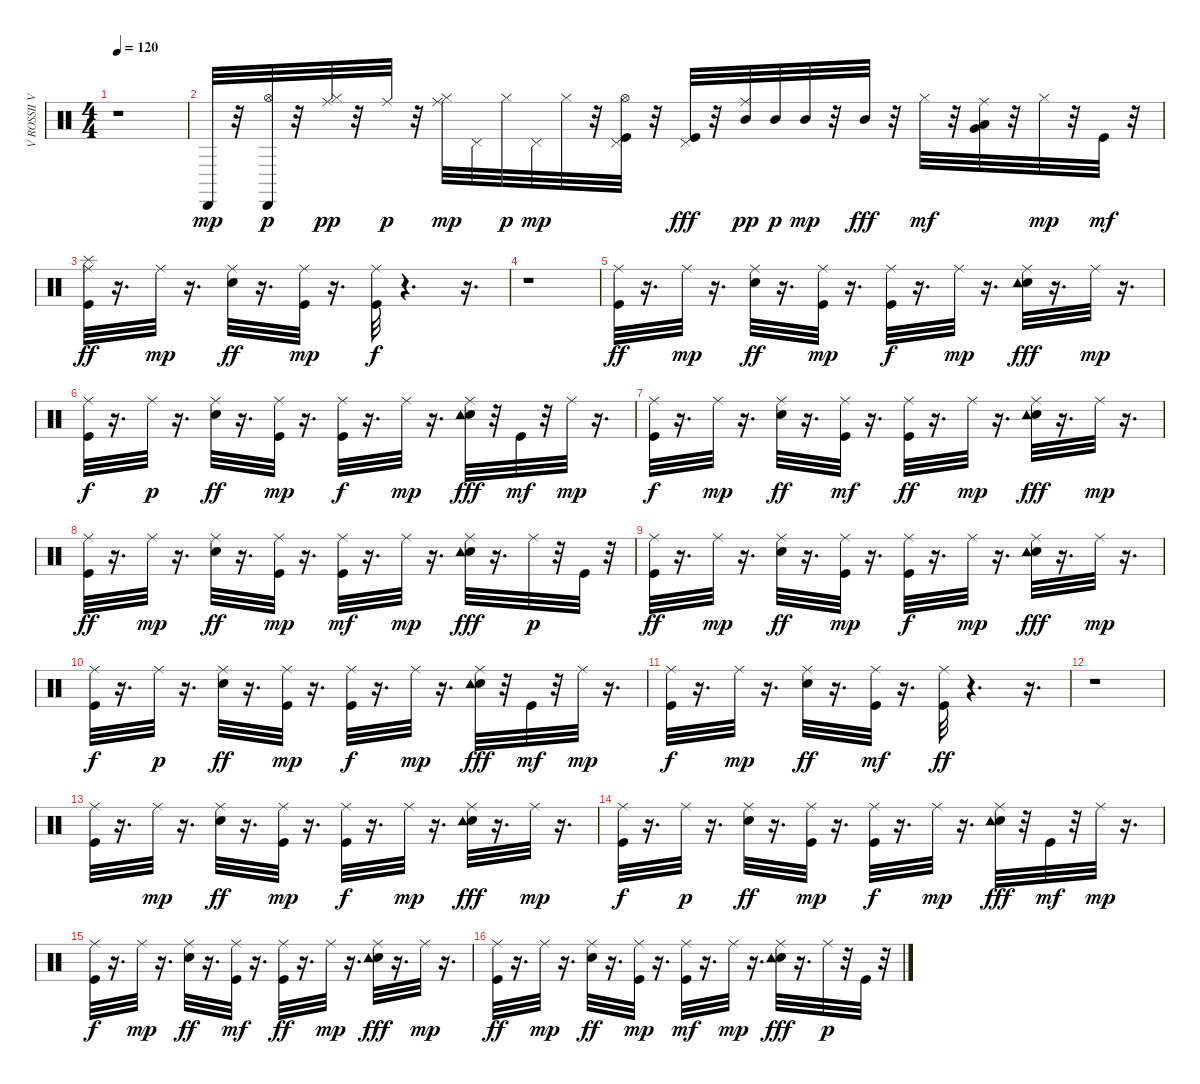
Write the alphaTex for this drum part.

\track ("V ROSSII VECHERA     " "V ROSSII V") {instrument percussion}
\staff {score}
\articulation defaults
\ts (4 4)
\tempo 120
\clef neutral
\ks c
r.1{dy mp} |
"Cabasa (hit)".32 r.32 ("Cabasa (hit)" "Hi-Hat (open)").32{dy p} r.32 ("Hi-Hat (closed)" "Ride (middle)").32{dy pp} r.32 "Ride (middle)".32{dy p} r.32 ("Hi-Hat (closed)" "Ride (middle)").32{dy mp} "Pedal Hi-Hat (hit)".32 "Hi-Hat (closed)".32{dy p} "Pedal Hi-Hat (hit)".32{dy mp} "Hi-Hat (closed)".32 r.32 ("Pedal Hi-Hat (hit)" "Kick (hit)" "Hi-Hat (open)").32 r.32 ("Kick (hit)" "Pedal Hi-Hat (hit)").32{dy fff} r.32 ("Ride (middle)" "Mid Tom (hit)").32{dy pp} "Mid Tom (hit)".32{dy p} "Mid Tom (hit)".32{dy mp} r.32 "Mid Tom (hit)".32{dy fff} r.32 "Hi-Hat (closed)".32{dy mf} r.32 ("Ride (middle)" "Low Tom (hit)" "Very Low Tom (hit)").32 r.32 "Hi-Hat (closed)".32{dy mp} r.32 "Kick (hit)".32{dy mf} r.32 |
("Splash (hit)" "Ride (middle)" "Kick (hit)").32{dy ff} r.16{d} "Ride (middle)".32{dy mp} r.16{d} ("Snare (hit) 2" "Ride (middle)").32{dy ff} r.16{d} ("Kick (hit)" "Ride (middle)").32{dy mp} r.16{d} ("Kick (hit)" "Ride (middle)").32{dy f} r.4{d} r.16{d} |
r.1 |
("Ride (middle)" "Kick (hit)").32{dy ff} r.16{d} "Ride (middle)".32{dy mp} r.16{d} ("Snare (hit) 2" "Ride (middle)").32{dy ff} r.16{d} ("Kick (hit)" "Ride (middle)").32{dy mp} r.16{d} ("Kick (hit)" "Ride (middle)").32{dy f} r.16{d} "Ride (middle)".32{dy mp} r.16{d} ("Snare (hit) 2" "Ride (middle)" "Tambourine (hit)").32{dy fff} r.16{d} "Ride (middle)".32{dy mp} r.16{d} |
("Ride (middle)" "Kick (hit)").32{dy f} r.16{d} "Ride (middle)".32{dy p} r.16{d} ("Snare (hit) 2" "Ride (middle)").32{dy ff} r.16{d} ("Ride (middle)" "Kick (hit)").32{dy mp} r.16{d} ("Ride (middle)" "Kick (hit)").32{dy f} r.16{d} "Ride (middle)".32{dy mp} r.16{d} ("Snare (hit) 2" "Ride (middle)" "Tambourine (hit)").32{dy fff} r.32 "Kick (hit)".32{dy mf} r.32 "Ride (middle)".32{dy mp} r.16{d} |
("Kick (hit)" "Ride (middle)").32{dy f} r.16{d} "Ride (middle)".32{dy mp} r.16{d} ("Snare (hit) 2" "Ride (middle)").32{dy ff} r.16{d} ("Ride (middle)" "Kick (hit)").32{dy mf} r.16{d} ("Ride (middle)" "Kick (hit)").32{dy ff} r.16{d} "Ride (middle)".32{dy mp} r.16{d} ("Snare (hit) 2" "Ride (middle)" "Tambourine (hit)").32{dy fff} r.16{d} "Ride (middle)".32{dy mp} r.16{d} |
("Kick (hit)" "Ride (middle)").32{dy ff} r.16{d} "Ride (middle)".32{dy mp} r.16{d} ("Snare (hit) 2" "Ride (middle)").32{dy ff} r.16{d} ("Kick (hit)" "Ride (middle)").32{dy mp} r.16{d} ("Kick (hit)" "Ride (middle)").32{dy mf} r.16{d} "Ride (middle)".32{dy mp} r.16{d} ("Snare (hit) 2" "Ride (middle)" "Tambourine (hit)").32{dy fff} r.16{d} "Ride (middle)".32{dy p} r.32 "Kick (hit)".32 r.32 |
("Ride (middle)" "Kick (hit)").32{dy ff} r.16{d} "Ride (middle)".32{dy mp} r.16{d} ("Snare (hit) 2" "Ride (middle)").32{dy ff} r.16{d} ("Kick (hit)" "Ride (middle)").32{dy mp} r.16{d} ("Kick (hit)" "Ride (middle)").32{dy f} r.16{d} "Ride (middle)".32{dy mp} r.16{d} ("Snare (hit) 2" "Ride (middle)" "Tambourine (hit)").32{dy fff} r.16{d} "Ride (middle)".32{dy mp} r.16{d} |
("Ride (middle)" "Kick (hit)").32{dy f} r.16{d} "Ride (middle)".32{dy p} r.16{d} ("Snare (hit) 2" "Ride (middle)").32{dy ff} r.16{d} ("Ride (middle)" "Kick (hit)").32{dy mp} r.16{d} ("Ride (middle)" "Kick (hit)").32{dy f} r.16{d} "Ride (middle)".32{dy mp} r.16{d} ("Snare (hit) 2" "Ride (middle)" "Tambourine (hit)").32{dy fff} r.32 "Kick (hit)".32{dy mf} r.32 "Ride (middle)".32{dy mp} r.16{d} |
("Kick (hit)" "Ride (middle)").32{dy f} r.16{d} "Ride (middle)".32{dy mp} r.16{d} ("Snare (hit) 2" "Ride (middle)").32{dy ff} r.16{d} ("Ride (middle)" "Kick (hit)").32{dy mf} r.16{d} ("Ride (middle)" "Kick (hit)").32{dy ff} r.4{d} r.16{d} |
r.1 |
("Ride (middle)" "Kick (hit)").32 r.16{d} "Ride (middle)".32{dy mp} r.16{d} ("Snare (hit) 2" "Ride (middle)").32{dy ff} r.16{d} ("Kick (hit)" "Ride (middle)").32{dy mp} r.16{d} ("Kick (hit)" "Ride (middle)").32{dy f} r.16{d} "Ride (middle)".32{dy mp} r.16{d} ("Snare (hit) 2" "Ride (middle)" "Tambourine (hit)").32{dy fff} r.16{d} "Ride (middle)".32{dy mp} r.16{d} |
("Ride (middle)" "Kick (hit)").32{dy f} r.16{d} "Ride (middle)".32{dy p} r.16{d} ("Snare (hit) 2" "Ride (middle)").32{dy ff} r.16{d} ("Ride (middle)" "Kick (hit)").32{dy mp} r.16{d} ("Ride (middle)" "Kick (hit)").32{dy f} r.16{d} "Ride (middle)".32{dy mp} r.16{d} ("Snare (hit) 2" "Ride (middle)" "Tambourine (hit)").32{dy fff} r.32 "Kick (hit)".32{dy mf} r.32 "Ride (middle)".32{dy mp} r.16{d} |
("Kick (hit)" "Ride (middle)").32{dy f} r.16{d} "Ride (middle)".32{dy mp} r.16{d} ("Snare (hit) 2" "Ride (middle)").32{dy ff} r.16{d} ("Ride (middle)" "Kick (hit)").32{dy mf} r.16{d} ("Ride (middle)" "Kick (hit)").32{dy ff} r.16{d} "Ride (middle)".32{dy mp} r.16{d} ("Snare (hit) 2" "Ride (middle)" "Tambourine (hit)").32{dy fff} r.16{d} "Ride (middle)".32{dy mp} r.16{d} |
("Kick (hit)" "Ride (middle)").32{dy ff} r.16{d} "Ride (middle)".32{dy mp} r.16{d} ("Snare (hit) 2" "Ride (middle)").32{dy ff} r.16{d} ("Kick (hit)" "Ride (middle)").32{dy mp} r.16{d} ("Kick (hit)" "Ride (middle)").32{dy mf} r.16{d} "Ride (middle)".32{dy mp} r.16{d} ("Snare (hit) 2" "Ride (middle)" "Tambourine (hit)").32{dy fff} r.16{d} "Ride (middle)".32{dy p} r.32 "Kick (hit)".32 r.32
